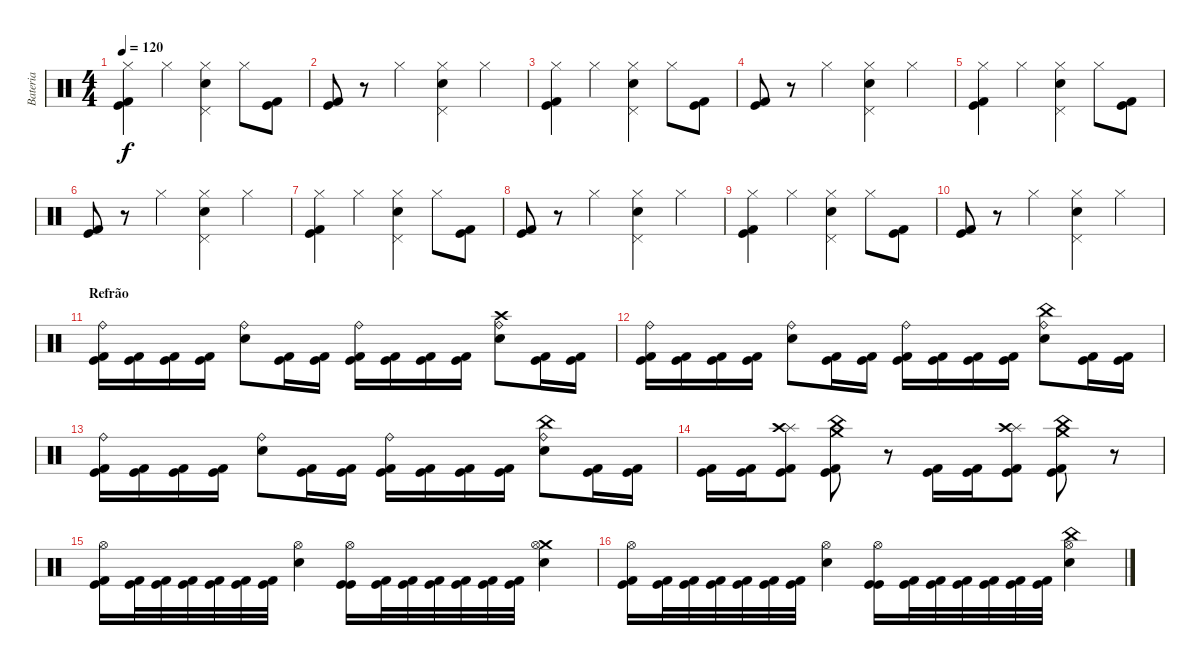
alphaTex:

\track ("Bateria" "Bateria") {instrument percussion}
\staff {score}
\articulation defaults
\ts (4 4)
\tempo 120
\clef neutral
\ks c
("Hi-Hat (closed)" "Kick (hit) 2" "Kick (hit)").4{dy f} "Hi-Hat (closed)".4 ("Hi-Hat (closed)" "Pedal Hi-Hat (hit)" "Electric Snare (hit)").4 "Hi-Hat (closed)".8 ("Kick (hit)" "Kick (hit) 2").8 |
("Kick (hit)" "Kick (hit) 2").8 r.8 "Hi-Hat (closed)".4 ("Hi-Hat (closed)" "Pedal Hi-Hat (hit)" "Electric Snare (hit)").4 "Hi-Hat (closed)".4 |
("Hi-Hat (closed)" "Kick (hit) 2" "Kick (hit)").4 "Hi-Hat (closed)".4 ("Hi-Hat (closed)" "Pedal Hi-Hat (hit)" "Electric Snare (hit)").4 "Hi-Hat (closed)".8 ("Kick (hit)" "Kick (hit) 2").8 |
("Kick (hit)" "Kick (hit) 2").8 r.8 "Hi-Hat (closed)".4 ("Hi-Hat (closed)" "Pedal Hi-Hat (hit)" "Electric Snare (hit)").4 "Hi-Hat (closed)".4 |
("Hi-Hat (closed)" "Kick (hit) 2" "Kick (hit)").4 "Hi-Hat (closed)".4 ("Hi-Hat (closed)" "Pedal Hi-Hat (hit)" "Electric Snare (hit)").4 "Hi-Hat (closed)".8 ("Kick (hit)" "Kick (hit) 2").8 |
("Kick (hit)" "Kick (hit) 2").8 r.8 "Hi-Hat (closed)".4 ("Hi-Hat (closed)" "Pedal Hi-Hat (hit)" "Electric Snare (hit)").4 "Hi-Hat (closed)".4 |
("Hi-Hat (closed)" "Kick (hit) 2" "Kick (hit)").4 "Hi-Hat (closed)".4 ("Hi-Hat (closed)" "Pedal Hi-Hat (hit)" "Electric Snare (hit)").4 "Hi-Hat (closed)".8 ("Kick (hit)" "Kick (hit) 2").8 |
("Kick (hit)" "Kick (hit) 2").8 r.8 "Hi-Hat (closed)".4 ("Hi-Hat (closed)" "Pedal Hi-Hat (hit)" "Electric Snare (hit)").4 "Hi-Hat (closed)".4 |
("Hi-Hat (closed)" "Kick (hit) 2" "Kick (hit)").4 "Hi-Hat (closed)".4 ("Hi-Hat (closed)" "Pedal Hi-Hat (hit)" "Electric Snare (hit)").4 "Hi-Hat (closed)".8 ("Kick (hit)" "Kick (hit) 2").8 |
("Kick (hit)" "Kick (hit) 2").8 r.8 "Hi-Hat (closed)".4 ("Hi-Hat (closed)" "Pedal Hi-Hat (hit)" "Electric Snare (hit)").4 "Hi-Hat (closed)".4 |
\section ("" "Refrão")
("Kick (hit) 2" "Kick (hit)" "Ride (bell)").16 ("Kick (hit) 2" "Kick (hit)").16 ("Kick (hit)" "Kick (hit) 2").16 ("Kick (hit)" "Kick (hit) 2").16 ("Electric Snare (hit)" "Ride (bell)").8 ("Kick (hit)" "Kick (hit) 2").16 ("Kick (hit)" "Kick (hit) 2").16 ("Kick (hit) 2" "Kick (hit)" "Ride (bell)").16 ("Kick (hit)" "Kick (hit) 2").16 ("Kick (hit)" "Kick (hit) 2").16 ("Kick (hit)" "Kick (hit) 2").16 ("Crash high (hit)" "Electric Snare (hit)" "Ride (bell)").8 ("Kick (hit) 2" "Kick (hit)").16 ("Kick (hit) 2" "Kick (hit)").16 |
("Kick (hit) 2" "Kick (hit)" "Ride (bell)").16 ("Kick (hit) 2" "Kick (hit)").16 ("Kick (hit) 2" "Kick (hit)").16 ("Kick (hit) 2" "Kick (hit)").16 ("Electric Snare (hit)" "Ride (bell)").8 ("Kick (hit)" "Kick (hit) 2").16 ("Kick (hit)" "Kick (hit) 2").16 ("Kick (hit)" "Kick (hit) 2" "Ride (bell)").16 ("Kick (hit)" "Kick (hit) 2").16 ("Kick (hit)" "Kick (hit) 2").16 ("Kick (hit)" "Kick (hit) 2").16 ("China (hit)" "Electric Snare (hit)" "Ride (bell)").8 ("Kick (hit)" "Kick (hit) 2").16 ("Kick (hit)" "Kick (hit) 2").16 |
("Kick (hit)" "Kick (hit) 2" "Ride (bell)").16 ("Kick (hit)" "Kick (hit) 2").16 ("Kick (hit)" "Kick (hit) 2").16 ("Kick (hit)" "Kick (hit) 2").16 ("Electric Snare (hit)" "Ride (bell)").8 ("Kick (hit) 2" "Kick (hit)").16 ("Kick (hit) 2" "Kick (hit)").16 ("Kick (hit) 2" "Kick (hit)" "Ride (bell)").16 ("Kick (hit) 2" "Kick (hit)").16 ("Kick (hit) 2" "Kick (hit)").16 ("Kick (hit) 2" "Kick (hit)").16 ("China (hit)" "Electric Snare (hit)" "Ride (bell)").8 ("Kick (hit)" "Kick (hit) 2").16 ("Kick (hit)" "Kick (hit) 2").16 |
("Kick (hit)" "Kick (hit) 2").16 ("Kick (hit) 2" "Kick (hit)").16 ("Splash (hit)" "Crash high (hit)" "Kick (hit) 2" "Kick (hit)").8 ("Crash medium (hit)" "China (hit)" "Kick (hit) 2" "Kick (hit)").8 r.8 ("Kick (hit) 2" "Kick (hit)").16 ("Kick (hit) 2" "Kick (hit)").16 ("Splash (hit)" "Crash high (hit)" "Kick (hit)" "Kick (hit) 2").8 ("Crash medium (hit)" "China (hit)" "Kick (hit)" "Kick (hit) 2").8 r.8 |
("Kick (hit) 2" "Kick (hit)" "Hi-Hat (open)").16 ("Kick (hit) 2" "Kick (hit)").32 ("Kick (hit) 2" "Kick (hit)").32 ("Kick (hit) 2" "Kick (hit)").32 ("Kick (hit) 2" "Kick (hit)").32 ("Kick (hit) 2" "Kick (hit)").32 ("Kick (hit) 2" "Kick (hit)").32 ("Electric Snare (hit)" "Hi-Hat (open)").4 ("Kick (hit)" "Kick (hit)" "Hi-Hat (open)").16 ("Kick (hit) 2" "Kick (hit)").32 ("Kick (hit) 2" "Kick (hit)").32 ("Kick (hit) 2" "Kick (hit)").32 ("Kick (hit) 2" "Kick (hit)").32 ("Kick (hit) 2" "Kick (hit)").32 ("Kick (hit) 2" "Kick (hit)").32 ("Crash medium (hit)" "Electric Snare (hit)" "Hi-Hat (open)").4 |
("Kick (hit) 2" "Kick (hit)" "Hi-Hat (open)").16 ("Kick (hit) 2" "Kick (hit)").32 ("Kick (hit) 2" "Kick (hit)").32 ("Kick (hit) 2" "Kick (hit)").32 ("Kick (hit) 2" "Kick (hit)").32 ("Kick (hit) 2" "Kick (hit)").32 ("Kick (hit) 2" "Kick (hit)").32 ("Electric Snare (hit)" "Hi-Hat (open)").4 ("Kick (hit)" "Kick (hit)" "Hi-Hat (open)").16 ("Kick (hit) 2" "Kick (hit)").32 ("Kick (hit) 2" "Kick (hit)").32 ("Kick (hit) 2" "Kick (hit)").32 ("Kick (hit) 2" "Kick (hit)").32 ("Kick (hit) 2" "Kick (hit)").32 ("Kick (hit) 2" "Kick (hit)").32 ("China (hit)" "Electric Snare (hit)" "Hi-Hat (open)").4
